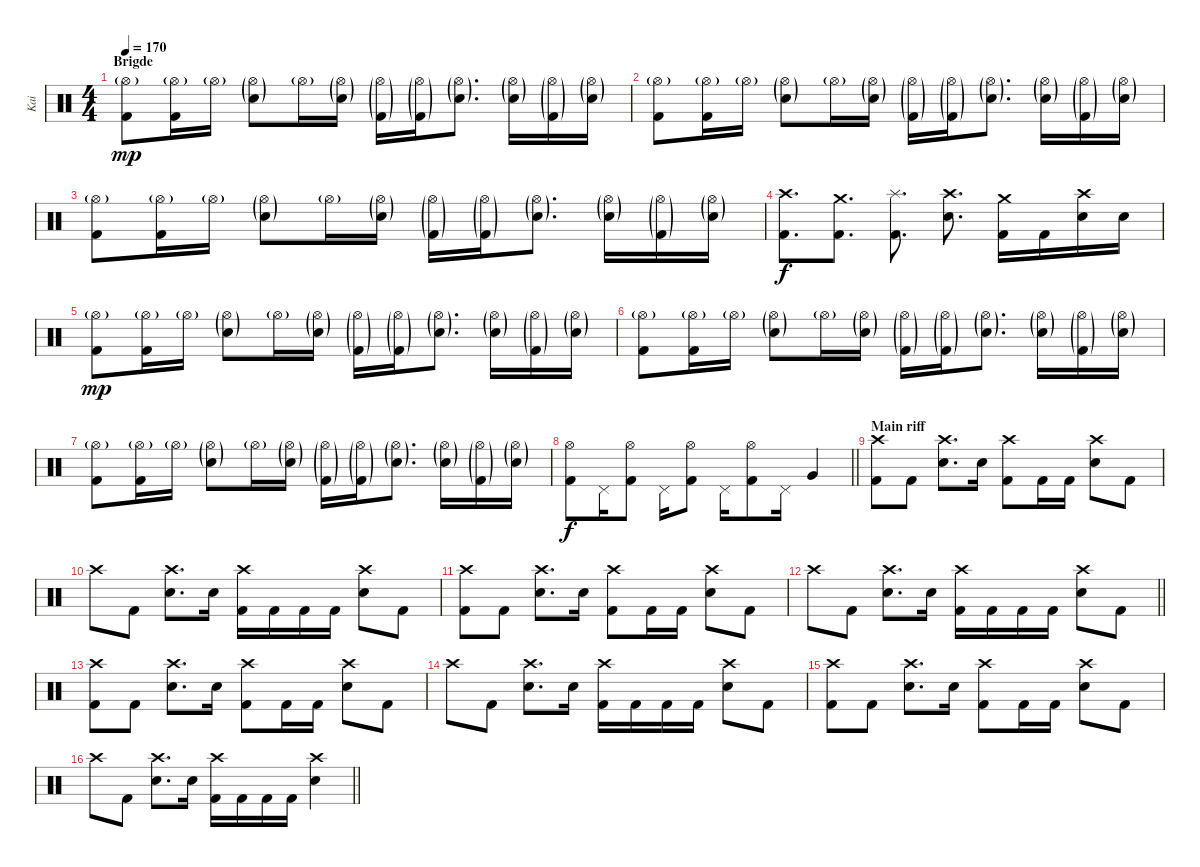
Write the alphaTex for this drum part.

\track ("Kai" "Kai") {instrument percussion}
\staff {score}
\articulation defaults
\ts (4 4)
\section ("" "Brigde")
\tempo 170
\clef neutral
\ks c
("Hi-Hat (open)"{g} "Kick (hit) 2").8{dy mp} ("Hi-Hat (open)"{g} "Kick (hit) 2").16 "Hi-Hat (open)"{g}.16 ("Hi-Hat (open)"{g} "Electric Snare (hit)"{g}).8 "Hi-Hat (open)"{g}.16 ("Hi-Hat (open)"{g} "Electric Snare (hit)"{g}).16 ("Hi-Hat (open)"{g} "Kick (hit) 2"{g}).16 ("Hi-Hat (open)"{g} "Kick (hit) 2"{g}).16 ("Hi-Hat (open)"{g} "Electric Snare (hit)"{g}).8{d} ("Hi-Hat (open)"{g} "Electric Snare (hit)"{g}).16 ("Hi-Hat (open)"{g} "Kick (hit) 2"{g}).16 ("Hi-Hat (open)"{g} "Electric Snare (hit)"{g}).16 |
("Hi-Hat (open)"{g} "Kick (hit) 2").8 ("Hi-Hat (open)"{g} "Kick (hit) 2").16 "Hi-Hat (open)"{g}.16 ("Hi-Hat (open)"{g} "Electric Snare (hit)"{g}).8 "Hi-Hat (open)"{g}.16 ("Hi-Hat (open)"{g} "Electric Snare (hit)"{g}).16 ("Hi-Hat (open)"{g} "Kick (hit) 2"{g}).16 ("Hi-Hat (open)"{g} "Kick (hit) 2"{g}).16 ("Hi-Hat (open)"{g} "Electric Snare (hit)"{g}).8{d} ("Hi-Hat (open)"{g} "Electric Snare (hit)"{g}).16 ("Hi-Hat (open)"{g} "Kick (hit) 2"{g}).16 ("Hi-Hat (open)"{g} "Electric Snare (hit)"{g}).16 |
("Hi-Hat (open)"{g} "Kick (hit) 2").8 ("Hi-Hat (open)"{g} "Kick (hit) 2").16 "Hi-Hat (open)"{g}.16 ("Hi-Hat (open)"{g} "Electric Snare (hit)"{g}).8 "Hi-Hat (open)"{g}.16 ("Hi-Hat (open)"{g} "Electric Snare (hit)"{g}).16 ("Hi-Hat (open)"{g} "Kick (hit) 2"{g}).16 ("Hi-Hat (open)"{g} "Kick (hit) 2"{g}).16 ("Hi-Hat (open)"{g} "Electric Snare (hit)"{g}).8{d} ("Hi-Hat (open)"{g} "Electric Snare (hit)"{g}).16 ("Hi-Hat (open)"{g} "Kick (hit) 2"{g}).16 ("Hi-Hat (open)"{g} "Electric Snare (hit)"{g}).16 |
("Crash high (hit)" "Kick (hit) 2").8{d dy f} ("Crash medium (hit)" "Kick (hit) 2").8{d} ("Splash (hit)" "Kick (hit) 2").8{d} ("Crash high (hit)" "Electric Snare (hit)").8{d} ("Crash medium (hit)" "Kick (hit) 2").16 "Kick (hit) 2".16 ("Crash high (hit)" "Electric Snare (hit)").16 "Electric Snare (hit)".16 |
("Hi-Hat (open)"{g} "Kick (hit) 2").8{dy mp} ("Hi-Hat (open)"{g} "Kick (hit) 2").16 "Hi-Hat (open)"{g}.16 ("Hi-Hat (open)"{g} "Electric Snare (hit)"{g}).8 "Hi-Hat (open)"{g}.16 ("Hi-Hat (open)"{g} "Electric Snare (hit)"{g}).16 ("Hi-Hat (open)"{g} "Kick (hit) 2"{g}).16 ("Hi-Hat (open)"{g} "Kick (hit) 2"{g}).16 ("Hi-Hat (open)"{g} "Electric Snare (hit)"{g}).8{d} ("Hi-Hat (open)"{g} "Electric Snare (hit)"{g}).16 ("Hi-Hat (open)"{g} "Kick (hit) 2"{g}).16 ("Hi-Hat (open)"{g} "Electric Snare (hit)"{g}).16 |
("Hi-Hat (open)"{g} "Kick (hit) 2").8 ("Hi-Hat (open)"{g} "Kick (hit) 2").16 "Hi-Hat (open)"{g}.16 ("Hi-Hat (open)"{g} "Electric Snare (hit)"{g}).8 "Hi-Hat (open)"{g}.16 ("Hi-Hat (open)"{g} "Electric Snare (hit)"{g}).16 ("Hi-Hat (open)"{g} "Kick (hit) 2"{g}).16 ("Hi-Hat (open)"{g} "Kick (hit) 2"{g}).16 ("Hi-Hat (open)"{g} "Electric Snare (hit)"{g}).8{d} ("Hi-Hat (open)"{g} "Electric Snare (hit)"{g}).16 ("Hi-Hat (open)"{g} "Kick (hit) 2"{g}).16 ("Hi-Hat (open)"{g} "Electric Snare (hit)"{g}).16 |
("Hi-Hat (open)"{g} "Kick (hit) 2").8 ("Hi-Hat (open)"{g} "Kick (hit) 2").16 "Hi-Hat (open)"{g}.16 ("Hi-Hat (open)"{g} "Electric Snare (hit)"{g}).8 "Hi-Hat (open)"{g}.16 ("Hi-Hat (open)"{g} "Electric Snare (hit)"{g}).16 ("Hi-Hat (open)"{g} "Kick (hit) 2"{g}).16 ("Hi-Hat (open)"{g} "Kick (hit) 2"{g}).16 ("Hi-Hat (open)"{g} "Electric Snare (hit)"{g}).8{d} ("Hi-Hat (open)"{g} "Electric Snare (hit)"{g}).16 ("Hi-Hat (open)"{g} "Kick (hit) 2"{g}).16 ("Hi-Hat (open)"{g} "Electric Snare (hit)"{g}).16 |
\barLineRight lightlight
("Hi-Hat (open)" "Kick (hit) 2").8{dy f} "Pedal Hi-Hat (hit)".16 ("Hi-Hat (open)" "Kick (hit) 2").8 "Pedal Hi-Hat (hit)".16 ("Hi-Hat (open)" "Kick (hit) 2").8 "Pedal Hi-Hat (hit)".16{beam merge} ("Hi-Hat (open)" "Kick (hit) 2").8 "Pedal Hi-Hat (hit)".16 "Very Low Tom (hit)".4 |
\section ("" "Main riff")
("Crash high (hit)" "Kick (hit) 2").8 "Kick (hit) 2".8 ("Crash high (hit)" "Electric Snare (hit)").8{d} "Electric Snare (hit)".16 ("Crash high (hit)" "Kick (hit) 2").8 "Kick (hit) 2".16 "Kick (hit) 2".16 ("Crash high (hit)" "Electric Snare (hit)").8 "Kick (hit) 2".8 |
"Crash high (hit)".8 "Kick (hit) 2".8 ("Crash high (hit)" "Electric Snare (hit)").8{d} "Electric Snare (hit)".16 ("Crash high (hit)" "Kick (hit) 2").16 "Kick (hit) 2".16 "Kick (hit) 2".16 "Kick (hit) 2".16 ("Crash high (hit)" "Electric Snare (hit)").8 "Kick (hit) 2".8 |
("Crash high (hit)" "Kick (hit) 2").8 "Kick (hit) 2".8 ("Crash high (hit)" "Electric Snare (hit)").8{d} "Electric Snare (hit)".16 ("Crash high (hit)" "Kick (hit) 2").8 "Kick (hit) 2".16 "Kick (hit) 2".16 ("Crash high (hit)" "Electric Snare (hit)").8 "Kick (hit) 2".8 |
\barLineRight lightlight "Crash high (hit)".8 "Kick (hit) 2".8
("Crash high (hit)" "Electric Snare (hit)").8{d} "Electric Snare (hit)".16 ("Crash high (hit)" "Kick (hit) 2").16 "Kick (hit) 2".16 "Kick (hit) 2".16 "Kick (hit) 2".16 ("Crash high (hit)" "Electric Snare (hit)").8 "Kick (hit) 2".8 |
("Crash high (hit)" "Kick (hit) 2").8 "Kick (hit) 2".8 ("Crash high (hit)" "Electric Snare (hit)").8{d} "Electric Snare (hit)".16 ("Crash high (hit)" "Kick (hit) 2").8 "Kick (hit) 2".16 "Kick (hit) 2".16 ("Crash high (hit)" "Electric Snare (hit)").8 "Kick (hit) 2".8 |
"Crash high (hit)".8 "Kick (hit) 2".8 ("Crash high (hit)" "Electric Snare (hit)").8{d} "Electric Snare (hit)".16 ("Crash high (hit)" "Kick (hit) 2").16 "Kick (hit) 2".16 "Kick (hit) 2".16 "Kick (hit) 2".16 ("Crash high (hit)" "Electric Snare (hit)").8 "Kick (hit) 2".8 |
("Crash high (hit)" "Kick (hit) 2").8 "Kick (hit) 2".8 ("Crash high (hit)" "Electric Snare (hit)").8{d} "Electric Snare (hit)".16 ("Crash high (hit)" "Kick (hit) 2").8 "Kick (hit) 2".16 "Kick (hit) 2".16 ("Crash high (hit)" "Electric Snare (hit)").8 "Kick (hit) 2".8 |
\barLineRight lightlight "Crash high (hit)".8 "Kick (hit) 2".8
("Crash high (hit)" "Electric Snare (hit)").8{d} "Electric Snare (hit)".16 ("Crash high (hit)" "Kick (hit) 2").16 "Kick (hit) 2".16 "Kick (hit) 2".16 "Kick (hit) 2".16 ("Crash high (hit)" "Electric Snare (hit)").4
